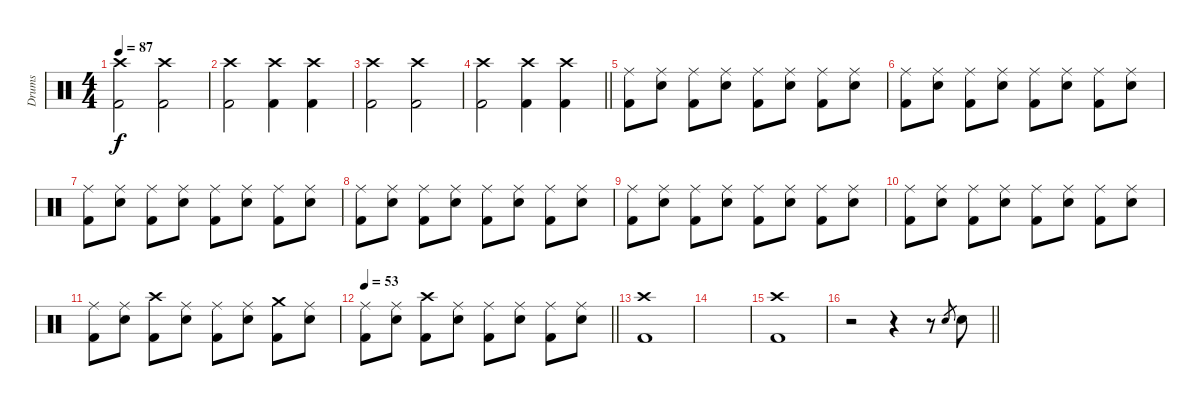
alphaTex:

\track ("Drums" "Drums") {instrument percussion}
\staff {score}
\articulation defaults
\ts (4 4)
\tempo 87
\clef neutral
\ks c
("Crash high (hit)" "Kick (hit) 2").2{dy f} ("Crash high (hit)" "Kick (hit) 2").2 |
("Crash high (hit)" "Kick (hit) 2").2 ("Crash high (hit)" "Kick (hit) 2").4 ("Crash high (hit)" "Kick (hit) 2").4 |
("Crash high (hit)" "Kick (hit) 2").2 ("Crash high (hit)" "Kick (hit) 2").2 |
\barLineRight lightlight
("Crash high (hit)" "Kick (hit) 2").2 ("Crash high (hit)" "Kick (hit) 2").4 ("Crash high (hit)" "Kick (hit) 2").4 |
("Ride (middle)" "Kick (hit) 2").8 ("Ride (middle)" "Electric Snare (hit)").8 ("Ride (middle)" "Kick (hit) 2").8 ("Ride (middle)" "Electric Snare (hit)").8 ("Ride (middle)" "Kick (hit) 2").8 ("Ride (middle)" "Electric Snare (hit)").8 ("Ride (middle)" "Kick (hit) 2").8 ("Ride (middle)" "Electric Snare (hit)").8 |
("Ride (middle)" "Kick (hit) 2").8 ("Ride (middle)" "Electric Snare (hit)").8 ("Ride (middle)" "Kick (hit) 2").8 ("Ride (middle)" "Electric Snare (hit)").8 ("Ride (middle)" "Kick (hit) 2").8 ("Ride (middle)" "Electric Snare (hit)").8 ("Ride (middle)" "Kick (hit) 2").8 ("Ride (middle)" "Electric Snare (hit)").8 |
("Ride (middle)" "Kick (hit) 2").8 ("Ride (middle)" "Electric Snare (hit)").8 ("Ride (middle)" "Kick (hit) 2").8 ("Ride (middle)" "Electric Snare (hit)").8 ("Ride (middle)" "Kick (hit) 2").8 ("Ride (middle)" "Electric Snare (hit)").8 ("Ride (middle)" "Kick (hit) 2").8 ("Ride (middle)" "Electric Snare (hit)").8 |
("Ride (middle)" "Kick (hit) 2").8 ("Ride (middle)" "Electric Snare (hit)").8 ("Ride (middle)" "Kick (hit) 2").8 ("Ride (middle)" "Electric Snare (hit)").8 ("Ride (middle)" "Kick (hit) 2").8 ("Ride (middle)" "Electric Snare (hit)").8 ("Ride (middle)" "Kick (hit) 2").8 ("Ride (middle)" "Electric Snare (hit)").8 |
("Ride (middle)" "Kick (hit) 2").8 ("Ride (middle)" "Electric Snare (hit)").8 ("Ride (middle)" "Kick (hit) 2").8 ("Ride (middle)" "Electric Snare (hit)").8 ("Ride (middle)" "Kick (hit) 2").8 ("Ride (middle)" "Electric Snare (hit)").8 ("Ride (middle)" "Kick (hit) 2").8 ("Ride (middle)" "Electric Snare (hit)").8 |
("Ride (middle)" "Kick (hit) 2").8 ("Ride (middle)" "Electric Snare (hit)").8 ("Ride (middle)" "Kick (hit) 2").8 ("Ride (middle)" "Electric Snare (hit)").8 ("Ride (middle)" "Kick (hit) 2").8 ("Ride (middle)" "Electric Snare (hit)").8 ("Ride (middle)" "Kick (hit) 2").8 ("Ride (middle)" "Electric Snare (hit)").8 |
("Ride (middle)" "Kick (hit) 2").8 ("Ride (middle)" "Electric Snare (hit)").8 ("Crash high (hit)" "Kick (hit) 2").8 ("Ride (middle)" "Electric Snare (hit)").8 ("Ride (middle)" "Kick (hit) 2").8 ("Ride (middle)" "Electric Snare (hit)").8 ("Crash medium (hit)" "Kick (hit) 2").8 ("Ride (middle)" "Electric Snare (hit)").8 |
\tempo 53
\barLineRight lightlight
("Ride (middle)" "Kick (hit) 2").8 ("Ride (middle)" "Electric Snare (hit)").8 ("Crash high (hit)" "Kick (hit) 2").8 ("Ride (middle)" "Electric Snare (hit)").8 ("Ride (middle)" "Kick (hit) 2").8 ("Ride (middle)" "Electric Snare (hit)").8 ("Ride (middle)" "Kick (hit) 2").8 ("Ride (middle)" "Electric Snare (hit)").8 |
("Crash high (hit)" "Kick (hit) 2").1 |
|
("Crash high (hit)" "Kick (hit) 2").1 |
\barLineRight lightlight
r.2 r.4 r.8 "Electric Snare (hit)".8{gr} "Electric Snare (hit)".8
